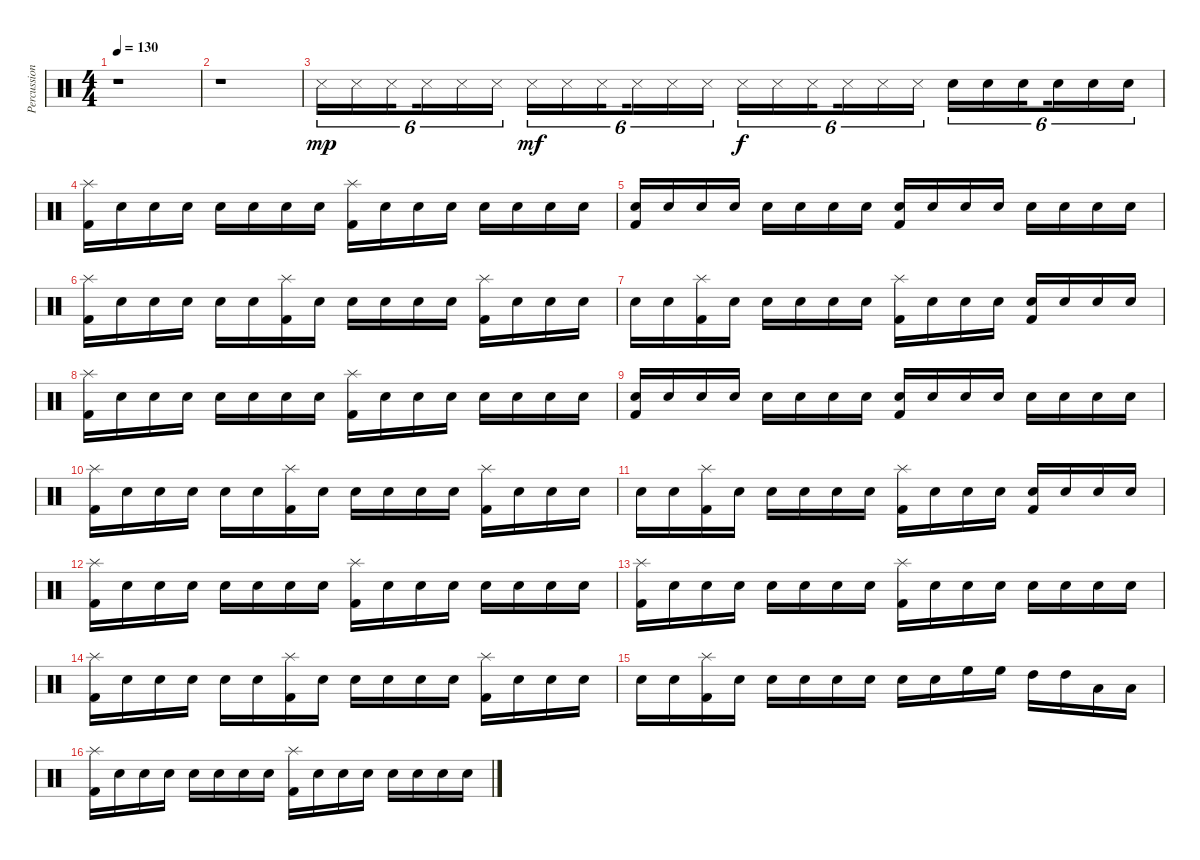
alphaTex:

\track ("Percussion" "Percussion") {instrument percussion}
\staff {score}
\articulation defaults
\ts (4 4)
\tempo 130
\clef neutral
\ks c
r.1{dy f} |
r.1 |
"Snare (side stick) 3".16{tu (6 4) dy mp} "Snare (side stick) 3".16{tu (6 4)} "Snare (side stick) 3".16{tu (6 4) beam splitsecondary} "Snare (side stick) 3".16{tu (6 4)} "Snare (side stick) 3".16{tu (6 4)} "Snare (side stick) 3".16{tu (6 4)} "Snare (side stick) 3".16{tu (6 4) dy mf} "Snare (side stick) 3".16{tu (6 4)} "Snare (side stick) 3".16{tu (6 4) beam splitsecondary} "Snare (side stick) 3".16{tu (6 4)} "Snare (side stick) 3".16{tu (6 4)} "Snare (side stick) 3".16{tu (6 4)} "Snare (side stick) 3".16{tu (6 4) dy f} "Snare (side stick) 3".16{tu (6 4)} "Snare (side stick) 3".16{tu (6 4) beam splitsecondary} "Snare (side stick) 3".16{tu (6 4)} "Snare (side stick) 3".16{tu (6 4)} "Snare (side stick) 3".16{tu (6 4)} "Snare (hit) 2".16{tu (6 4)} "Snare (hit) 2".16{tu (6 4)} "Snare (hit) 2".16{tu (6 4) beam splitsecondary} "Snare (hit) 2".16{tu (6 4)} "Snare (hit) 2".16{tu (6 4)} "Snare (hit) 2".16{tu (6 4)} |
("Kick (hit) 2" "Splash (hit)").16 "Snare (hit) 2".16 "Snare (hit) 2".16 "Snare (hit) 2".16 "Snare (hit) 2".16 "Snare (hit) 2".16 "Snare (hit) 2".16 "Snare (hit) 2".16 ("Kick (hit) 2" "Splash (hit)").16 "Snare (hit) 2".16 "Snare (hit) 2".16 "Snare (hit) 2".16 "Snare (hit) 2".16 "Snare (hit) 2".16 "Snare (hit) 2".16 "Snare (hit) 2".16 |
("Snare (hit) 2" "Kick (hit) 2").16 "Snare (hit) 2".16 "Snare (hit) 2".16 "Snare (hit) 2".16 "Snare (hit) 2".16 "Snare (hit) 2".16 "Snare (hit) 2".16 "Snare (hit) 2".16 ("Snare (hit) 2" "Kick (hit) 2").16 "Snare (hit) 2".16 "Snare (hit) 2".16 "Snare (hit) 2".16 "Snare (hit) 2".16 "Snare (hit) 2".16 "Snare (hit) 2".16 "Snare (hit) 2".16 |
("Kick (hit) 2" "Splash (hit)").16 "Snare (hit) 2".16 "Snare (hit) 2".16 "Snare (hit) 2".16 "Snare (hit) 2".16 "Snare (hit) 2".16 ("Kick (hit) 2" "Splash (hit)").16 "Snare (hit) 2".16 "Snare (hit) 2".16 "Snare (hit) 2".16 "Snare (hit) 2".16 "Snare (hit) 2".16 ("Kick (hit) 2" "Splash (hit)").16 "Snare (hit) 2".16 "Snare (hit) 2".16 "Snare (hit) 2".16 |
"Snare (hit) 2".16 "Snare (hit) 2".16 ("Kick (hit) 2" "Splash (hit)").16 "Snare (hit) 2".16 "Snare (hit) 2".16 "Snare (hit) 2".16 "Snare (hit) 2".16 "Snare (hit) 2".16 ("Kick (hit) 2" "Splash (hit)").16 "Snare (hit) 2".16 "Snare (hit) 2".16 "Snare (hit) 2".16 ("Snare (hit) 2" "Kick (hit) 2").16 "Snare (hit) 2".16 "Snare (hit) 2".16 "Snare (hit) 2".16 |
("Kick (hit) 2" "Splash (hit)").16 "Snare (hit) 2".16 "Snare (hit) 2".16 "Snare (hit) 2".16 "Snare (hit) 2".16 "Snare (hit) 2".16 "Snare (hit) 2".16 "Snare (hit) 2".16 ("Kick (hit) 2" "Splash (hit)").16 "Snare (hit) 2".16 "Snare (hit) 2".16 "Snare (hit) 2".16 "Snare (hit) 2".16 "Snare (hit) 2".16 "Snare (hit) 2".16 "Snare (hit) 2".16 |
("Snare (hit) 2" "Kick (hit) 2").16 "Snare (hit) 2".16 "Snare (hit) 2".16 "Snare (hit) 2".16 "Snare (hit) 2".16 "Snare (hit) 2".16 "Snare (hit) 2".16 "Snare (hit) 2".16 ("Snare (hit) 2" "Kick (hit) 2").16 "Snare (hit) 2".16 "Snare (hit) 2".16 "Snare (hit) 2".16 "Snare (hit) 2".16 "Snare (hit) 2".16 "Snare (hit) 2".16 "Snare (hit) 2".16 |
("Kick (hit) 2" "Splash (hit)").16 "Snare (hit) 2".16 "Snare (hit) 2".16 "Snare (hit) 2".16 "Snare (hit) 2".16 "Snare (hit) 2".16 ("Kick (hit) 2" "Splash (hit)").16 "Snare (hit) 2".16 "Snare (hit) 2".16 "Snare (hit) 2".16 "Snare (hit) 2".16 "Snare (hit) 2".16 ("Kick (hit) 2" "Splash (hit)").16 "Snare (hit) 2".16 "Snare (hit) 2".16 "Snare (hit) 2".16 |
"Snare (hit) 2".16 "Snare (hit) 2".16 ("Kick (hit) 2" "Splash (hit)").16 "Snare (hit) 2".16 "Snare (hit) 2".16 "Snare (hit) 2".16 "Snare (hit) 2".16 "Snare (hit) 2".16 ("Kick (hit) 2" "Splash (hit)").16 "Snare (hit) 2".16 "Snare (hit) 2".16 "Snare (hit) 2".16 ("Snare (hit) 2" "Kick (hit) 2").16 "Snare (hit) 2".16 "Snare (hit) 2".16 "Snare (hit) 2".16 |
("Kick (hit) 2" "Splash (hit)").16 "Snare (hit) 2".16 "Snare (hit) 2".16 "Snare (hit) 2".16 "Snare (hit) 2".16 "Snare (hit) 2".16 "Snare (hit) 2".16 "Snare (hit) 2".16 ("Kick (hit) 2" "Splash (hit)").16 "Snare (hit) 2".16 "Snare (hit) 2".16 "Snare (hit) 2".16 "Snare (hit) 2".16 "Snare (hit) 2".16 "Snare (hit) 2".16 "Snare (hit) 2".16 |
("Kick (hit) 2" "Splash (hit)").16 "Snare (hit) 2".16 "Snare (hit) 2".16 "Snare (hit) 2".16 "Snare (hit) 2".16 "Snare (hit) 2".16 "Snare (hit) 2".16 "Snare (hit) 2".16 ("Kick (hit) 2" "Splash (hit)").16 "Snare (hit) 2".16 "Snare (hit) 2".16 "Snare (hit) 2".16 "Snare (hit) 2".16 "Snare (hit) 2".16 "Snare (hit) 2".16 "Snare (hit) 2".16 |
("Kick (hit) 2" "Splash (hit)").16 "Snare (hit) 2".16 "Snare (hit) 2".16 "Snare (hit) 2".16 "Snare (hit) 2".16 "Snare (hit) 2".16 ("Kick (hit) 2" "Splash (hit)").16 "Snare (hit) 2".16 "Snare (hit) 2".16 "Snare (hit) 2".16 "Snare (hit) 2".16 "Snare (hit) 2".16 ("Kick (hit) 2" "Splash (hit)").16 "Snare (hit) 2".16 "Snare (hit) 2".16 "Snare (hit) 2".16 |
"Snare (hit) 2".16 "Snare (hit) 2".16 ("Kick (hit) 2" "Splash (hit)").16 "Snare (hit) 2".16 "Snare (hit) 2".16 "Snare (hit) 2".16 "Snare (hit) 2".16 "Snare (hit) 2".16 "Snare (hit) 2".16 "Snare (hit) 2".16 "High Floor Tom (hit)".16 "High Floor Tom (hit)".16 "High Tom (hit)".16 "High Tom (hit)".16 "Low Tom (hit)".16 "Low Tom (hit)".16 |
("Kick (hit) 2" "Splash (hit)").16 "Snare (hit) 2".16 "Snare (hit) 2".16 "Snare (hit) 2".16 "Snare (hit) 2".16 "Snare (hit) 2".16 "Snare (hit) 2".16 "Snare (hit) 2".16 ("Kick (hit) 2" "Splash (hit)").16 "Snare (hit) 2".16 "Snare (hit) 2".16 "Snare (hit) 2".16 "Snare (hit) 2".16 "Snare (hit) 2".16 "Snare (hit) 2".16 "Snare (hit) 2".16
